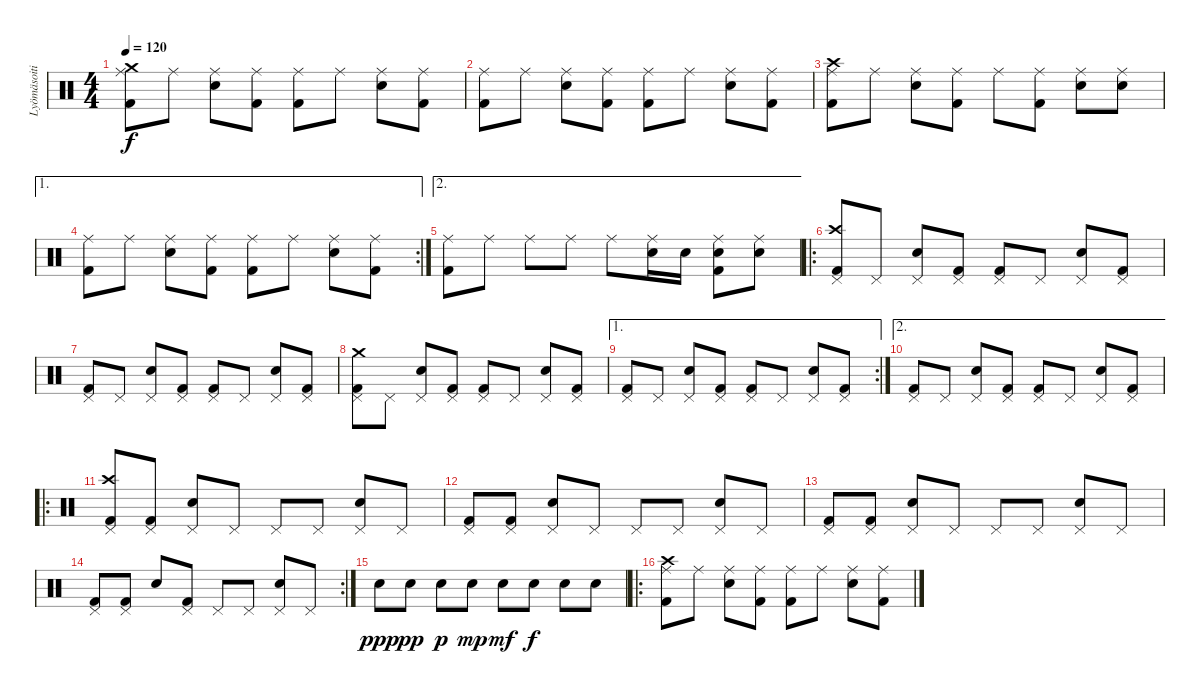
\track ("Lyömäsoitin" "Lyömäsoiti") {instrument percussion}
\staff {score}
\articulation defaults
\ts (4 4)
\tempo 120
\clef neutral
\ks c
("Crash medium (hit)" "Ride (middle)" "Kick (hit) 2").8{dy f} "Ride (middle)".8 ("Ride (middle)" "Electric Snare (hit)").8 ("Ride (middle)" "Kick (hit) 2").8 ("Ride (middle)" "Kick (hit) 2").8 "Ride (middle)".8 ("Ride (middle)" "Electric Snare (hit)").8 ("Ride (middle)" "Kick (hit) 2").8 |
("Ride (middle)" "Kick (hit) 2").8 "Ride (middle)".8 ("Ride (middle)" "Electric Snare (hit)").8 ("Ride (middle)" "Kick (hit) 2").8 ("Ride (middle)" "Kick (hit) 2").8 "Ride (middle)".8 ("Ride (middle)" "Electric Snare (hit)").8 ("Ride (middle)" "Kick (hit) 2").8 |
("Crash high (hit)" "Ride (middle)" "Kick (hit) 2").8 "Ride (middle)".8 ("Ride (middle)" "Electric Snare (hit)").8 ("Ride (middle)" "Kick (hit) 2").8 "Ride (middle)".8 ("Ride (middle)" "Kick (hit) 2").8 ("Ride (middle)" "Electric Snare (hit)").8 ("Ride (middle)" "Electric Snare (hit)").8 |
\ae 1
\rc 2
("Ride (middle)" "Kick (hit) 2").8 "Ride (middle)".8 ("Ride (middle)" "Electric Snare (hit)").8 ("Ride (middle)" "Kick (hit) 2").8 ("Ride (middle)" "Kick (hit) 2").8 "Ride (middle)".8 ("Ride (middle)" "Electric Snare (hit)").8 ("Ride (middle)" "Kick (hit) 2").8 |
\ae 2
("Ride (middle)" "Kick (hit) 2").8 "Ride (middle)".8 "Ride (middle)".8 "Ride (middle)".8 "Ride (middle)".8 ("Ride (middle)" "Electric Snare (hit)").16 "Electric Snare (hit)".16 ("Ride (middle)" "Electric Snare (hit)" "Kick (hit) 2").8 ("Ride (middle)" "Electric Snare (hit)").8 |
\ro
("Crash high (hit)" "Pedal Hi-Hat (hit)" "Kick (hit) 2").8 "Pedal Hi-Hat (hit)".8 ("Pedal Hi-Hat (hit)" "Electric Snare (hit)").8 ("Pedal Hi-Hat (hit)" "Kick (hit) 2").8 ("Pedal Hi-Hat (hit)" "Kick (hit) 2").8 "Pedal Hi-Hat (hit)".8 ("Pedal Hi-Hat (hit)" "Electric Snare (hit)").8 ("Pedal Hi-Hat (hit)" "Kick (hit) 2").8 |
("Pedal Hi-Hat (hit)" "Kick (hit) 2").8 "Pedal Hi-Hat (hit)".8 ("Pedal Hi-Hat (hit)" "Electric Snare (hit)").8 ("Pedal Hi-Hat (hit)" "Kick (hit) 2").8 ("Pedal Hi-Hat (hit)" "Kick (hit) 2").8 "Pedal Hi-Hat (hit)".8 ("Pedal Hi-Hat (hit)" "Electric Snare (hit)").8 ("Pedal Hi-Hat (hit)" "Kick (hit) 2").8 |
("Crash medium (hit)" "Pedal Hi-Hat (hit)" "Kick (hit) 2").8 "Pedal Hi-Hat (hit)".8 ("Pedal Hi-Hat (hit)" "Electric Snare (hit)").8 ("Pedal Hi-Hat (hit)" "Kick (hit) 2").8 ("Pedal Hi-Hat (hit)" "Kick (hit) 2").8 "Pedal Hi-Hat (hit)".8 ("Pedal Hi-Hat (hit)" "Electric Snare (hit)").8 ("Pedal Hi-Hat (hit)" "Kick (hit) 2").8 |
\ae 1
\rc 2
("Pedal Hi-Hat (hit)" "Kick (hit) 2").8 "Pedal Hi-Hat (hit)".8 ("Pedal Hi-Hat (hit)" "Electric Snare (hit)").8 ("Pedal Hi-Hat (hit)" "Kick (hit) 2").8 ("Pedal Hi-Hat (hit)" "Kick (hit) 2").8 "Pedal Hi-Hat (hit)".8 ("Pedal Hi-Hat (hit)" "Electric Snare (hit)").8 ("Pedal Hi-Hat (hit)" "Kick (hit) 2").8 |
\ae 2
("Pedal Hi-Hat (hit)" "Kick (hit) 2").8 "Pedal Hi-Hat (hit)".8 ("Pedal Hi-Hat (hit)" "Electric Snare (hit)").8 ("Pedal Hi-Hat (hit)" "Kick (hit) 2").8 ("Pedal Hi-Hat (hit)" "Kick (hit) 2").8 "Pedal Hi-Hat (hit)".8 ("Pedal Hi-Hat (hit)" "Electric Snare (hit)").8 ("Pedal Hi-Hat (hit)" "Kick (hit) 2").8 |
\ro
("Crash high (hit)" "Pedal Hi-Hat (hit)" "Kick (hit) 2").8 ("Pedal Hi-Hat (hit)" "Kick (hit) 2").8 ("Pedal Hi-Hat (hit)" "Electric Snare (hit)").8 "Pedal Hi-Hat (hit)".8 "Pedal Hi-Hat (hit)".8 "Pedal Hi-Hat (hit)".8 ("Pedal Hi-Hat (hit)" "Electric Snare (hit)").8 "Pedal Hi-Hat (hit)".8 |
("Pedal Hi-Hat (hit)" "Kick (hit) 2").8 ("Pedal Hi-Hat (hit)" "Kick (hit) 2").8 ("Pedal Hi-Hat (hit)" "Electric Snare (hit)").8 "Pedal Hi-Hat (hit)".8 "Pedal Hi-Hat (hit)".8 "Pedal Hi-Hat (hit)".8 ("Pedal Hi-Hat (hit)" "Electric Snare (hit)").8 "Pedal Hi-Hat (hit)".8 |
("Pedal Hi-Hat (hit)" "Kick (hit) 2").8 ("Pedal Hi-Hat (hit)" "Kick (hit) 2").8 ("Pedal Hi-Hat (hit)" "Electric Snare (hit)").8 "Pedal Hi-Hat (hit)".8 "Pedal Hi-Hat (hit)".8 "Pedal Hi-Hat (hit)".8 ("Pedal Hi-Hat (hit)" "Electric Snare (hit)").8 "Pedal Hi-Hat (hit)".8 |
\rc 2
("Pedal Hi-Hat (hit)" "Kick (hit) 2").8 ("Pedal Hi-Hat (hit)" "Kick (hit) 2").8 "Electric Snare (hit)".8 ("Pedal Hi-Hat (hit)" "Kick (hit) 2").8 "Pedal Hi-Hat (hit)".8 "Pedal Hi-Hat (hit)".8 ("Pedal Hi-Hat (hit)" "Electric Snare (hit)").8 "Pedal Hi-Hat (hit)".8 |
"Electric Snare (hit)".8{dy ppp} "Electric Snare (hit)".8{dy pp} "Electric Snare (hit)".8{dy p} "Electric Snare (hit)".8{dy mp} "Electric Snare (hit)".8{dy mf} "Electric Snare (hit)".8{dy f} "Electric Snare (hit)".8 "Electric Snare (hit)".8 |
\ro
("Crash high (hit)" "Ride (middle)" "Kick (hit) 2").8 "Ride (middle)".8 ("Ride (middle)" "Electric Snare (hit)").8 ("Ride (middle)" "Kick (hit) 2").8 ("Ride (middle)" "Kick (hit) 2").8 "Ride (middle)".8 ("Ride (middle)" "Electric Snare (hit)").8 ("Ride (middle)" "Kick (hit) 2").8
